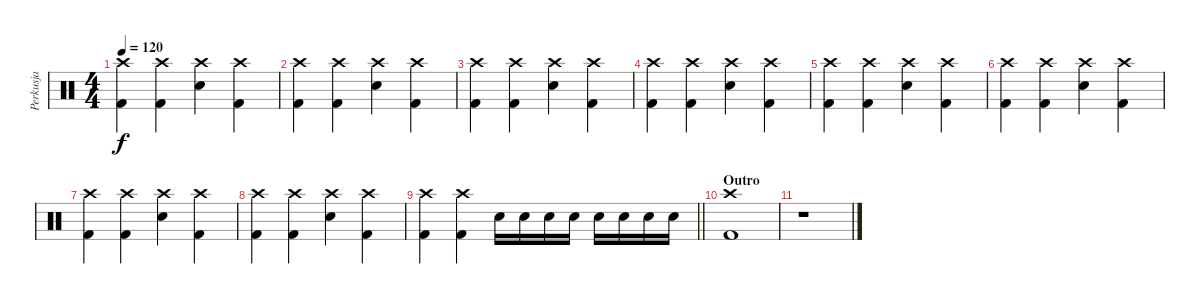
\track ("Perkusja" "Perkusja") {instrument percussion}
\staff {score}
\articulation defaults
\ts (4 4)
\tempo 120
\clef neutral
\ks c
("Crash high (hit)" "Kick (hit) 2").4{dy f} ("Crash high (hit)" "Kick (hit) 2").4 ("Crash high (hit)" "Electric Snare (hit)").4 ("Crash high (hit)" "Kick (hit) 2").4 |
("Crash high (hit)" "Kick (hit) 2").4 ("Crash high (hit)" "Kick (hit) 2").4 ("Crash high (hit)" "Electric Snare (hit)").4 ("Crash high (hit)" "Kick (hit) 2").4 |
("Crash high (hit)" "Kick (hit) 2").4 ("Crash high (hit)" "Kick (hit) 2").4 ("Crash high (hit)" "Electric Snare (hit)").4 ("Crash high (hit)" "Kick (hit) 2").4 |
("Crash high (hit)" "Kick (hit) 2").4 ("Crash high (hit)" "Kick (hit) 2").4 ("Crash high (hit)" "Electric Snare (hit)").4 ("Crash high (hit)" "Kick (hit) 2").4 |
("Crash high (hit)" "Kick (hit) 2").4 ("Crash high (hit)" "Kick (hit) 2").4 ("Crash high (hit)" "Electric Snare (hit)").4 ("Crash high (hit)" "Kick (hit) 2").4 |
("Crash high (hit)" "Kick (hit) 2").4 ("Crash high (hit)" "Kick (hit) 2").4 ("Crash high (hit)" "Electric Snare (hit)").4 ("Crash high (hit)" "Kick (hit) 2").4 |
("Crash high (hit)" "Kick (hit) 2").4 ("Crash high (hit)" "Kick (hit) 2").4 ("Crash high (hit)" "Electric Snare (hit)").4 ("Crash high (hit)" "Kick (hit) 2").4 |
("Crash high (hit)" "Kick (hit) 2").4 ("Crash high (hit)" "Kick (hit) 2").4 ("Crash high (hit)" "Electric Snare (hit)").4 ("Crash high (hit)" "Kick (hit) 2").4 |
\barLineRight lightlight
("Crash high (hit)" "Kick (hit) 2").4 ("Crash high (hit)" "Kick (hit) 2").4 "Electric Snare (hit)".16 "Electric Snare (hit)".16 "Electric Snare (hit)".16 "Electric Snare (hit)".16 "Electric Snare (hit)".16 "Electric Snare (hit)".16 "Electric Snare (hit)".16 "Electric Snare (hit)".16 |
\section ("" "Outro")
("Crash high (hit)" "Kick (hit) 2").1 |
r.1
